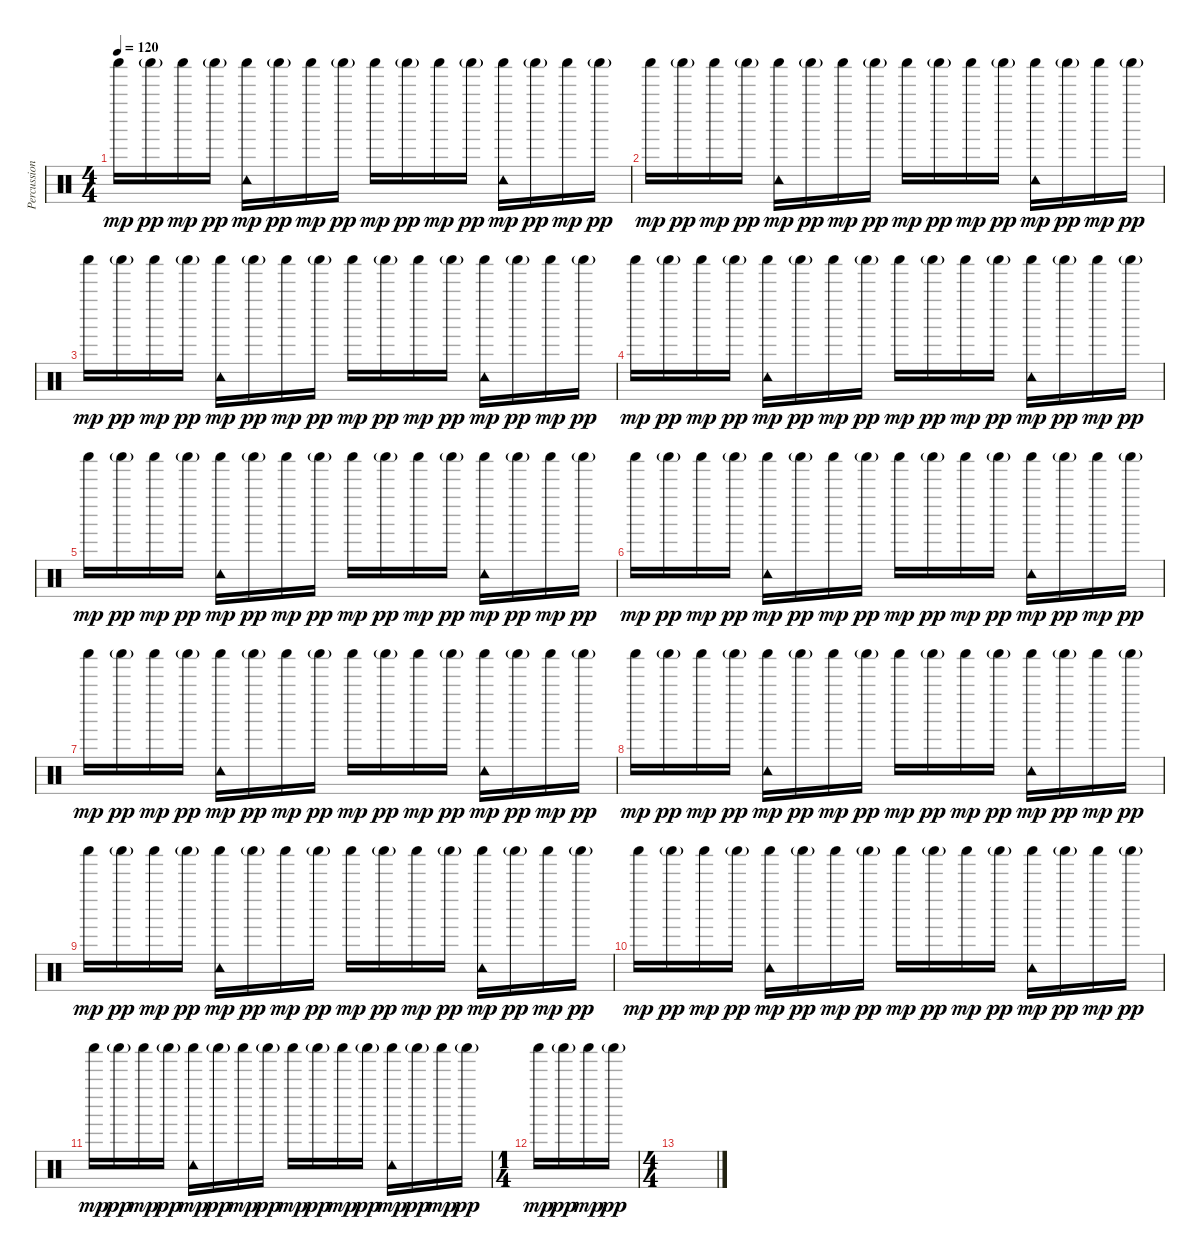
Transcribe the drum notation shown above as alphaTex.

\track ("Percussion" "Percussion") {instrument percussion}
\staff {score}
\articulation defaults
\ts (4 4)
\tempo 120
\clef neutral
\ks c "Shaker (hit)".16{dy mp} "Shaker (hit)"{g}.16{dy pp} "Shaker (hit)".16{dy mp} "Shaker (hit)"{g}.16{dy pp}
("Shaker (hit)" "Tambourine (hit)").16{dy mp} "Shaker (hit)"{g}.16{dy pp} "Shaker (hit)".16{dy mp} "Shaker (hit)"{g}.16{dy pp} "Shaker (hit)".16{dy mp} "Shaker (hit)"{g}.16{dy pp} "Shaker (hit)".16{dy mp} "Shaker (hit)"{g}.16{dy pp} ("Shaker (hit)" "Tambourine (hit)").16{dy mp} "Shaker (hit)"{g}.16{dy pp} "Shaker (hit)".16{dy mp} "Shaker (hit)"{g}.16{dy pp} |
"Shaker (hit)".16{dy mp} "Shaker (hit)"{g}.16{dy pp} "Shaker (hit)".16{dy mp} "Shaker (hit)"{g}.16{dy pp} ("Shaker (hit)" "Tambourine (hit)").16{dy mp} "Shaker (hit)"{g}.16{dy pp} "Shaker (hit)".16{dy mp} "Shaker (hit)"{g}.16{dy pp} "Shaker (hit)".16{dy mp} "Shaker (hit)"{g}.16{dy pp} "Shaker (hit)".16{dy mp} "Shaker (hit)"{g}.16{dy pp} ("Shaker (hit)" "Tambourine (hit)").16{dy mp} "Shaker (hit)"{g}.16{dy pp} "Shaker (hit)".16{dy mp} "Shaker (hit)"{g}.16{dy pp} |
"Shaker (hit)".16{dy mp} "Shaker (hit)"{g}.16{dy pp} "Shaker (hit)".16{dy mp} "Shaker (hit)"{g}.16{dy pp} ("Shaker (hit)" "Tambourine (hit)").16{dy mp} "Shaker (hit)"{g}.16{dy pp} "Shaker (hit)".16{dy mp} "Shaker (hit)"{g}.16{dy pp} "Shaker (hit)".16{dy mp} "Shaker (hit)"{g}.16{dy pp} "Shaker (hit)".16{dy mp} "Shaker (hit)"{g}.16{dy pp} ("Shaker (hit)" "Tambourine (hit)").16{dy mp} "Shaker (hit)"{g}.16{dy pp} "Shaker (hit)".16{dy mp} "Shaker (hit)"{g}.16{dy pp} |
"Shaker (hit)".16{dy mp} "Shaker (hit)"{g}.16{dy pp} "Shaker (hit)".16{dy mp} "Shaker (hit)"{g}.16{dy pp} ("Shaker (hit)" "Tambourine (hit)").16{dy mp} "Shaker (hit)"{g}.16{dy pp} "Shaker (hit)".16{dy mp} "Shaker (hit)"{g}.16{dy pp} "Shaker (hit)".16{dy mp} "Shaker (hit)"{g}.16{dy pp} "Shaker (hit)".16{dy mp} "Shaker (hit)"{g}.16{dy pp} ("Shaker (hit)" "Tambourine (hit)").16{dy mp} "Shaker (hit)"{g}.16{dy pp} "Shaker (hit)".16{dy mp} "Shaker (hit)"{g}.16{dy pp} |
"Shaker (hit)".16{dy mp} "Shaker (hit)"{g}.16{dy pp} "Shaker (hit)".16{dy mp} "Shaker (hit)"{g}.16{dy pp} ("Shaker (hit)" "Tambourine (hit)").16{dy mp} "Shaker (hit)"{g}.16{dy pp} "Shaker (hit)".16{dy mp} "Shaker (hit)"{g}.16{dy pp} "Shaker (hit)".16{dy mp} "Shaker (hit)"{g}.16{dy pp} "Shaker (hit)".16{dy mp} "Shaker (hit)"{g}.16{dy pp} ("Shaker (hit)" "Tambourine (hit)").16{dy mp} "Shaker (hit)"{g}.16{dy pp} "Shaker (hit)".16{dy mp} "Shaker (hit)"{g}.16{dy pp} |
"Shaker (hit)".16{dy mp} "Shaker (hit)"{g}.16{dy pp} "Shaker (hit)".16{dy mp} "Shaker (hit)"{g}.16{dy pp} ("Shaker (hit)" "Tambourine (hit)").16{dy mp} "Shaker (hit)"{g}.16{dy pp} "Shaker (hit)".16{dy mp} "Shaker (hit)"{g}.16{dy pp} "Shaker (hit)".16{dy mp} "Shaker (hit)"{g}.16{dy pp} "Shaker (hit)".16{dy mp} "Shaker (hit)"{g}.16{dy pp} ("Shaker (hit)" "Tambourine (hit)").16{dy mp} "Shaker (hit)"{g}.16{dy pp} "Shaker (hit)".16{dy mp} "Shaker (hit)"{g}.16{dy pp} |
"Shaker (hit)".16{dy mp} "Shaker (hit)"{g}.16{dy pp} "Shaker (hit)".16{dy mp} "Shaker (hit)"{g}.16{dy pp} ("Shaker (hit)" "Tambourine (hit)").16{dy mp} "Shaker (hit)"{g}.16{dy pp} "Shaker (hit)".16{dy mp} "Shaker (hit)"{g}.16{dy pp} "Shaker (hit)".16{dy mp} "Shaker (hit)"{g}.16{dy pp} "Shaker (hit)".16{dy mp} "Shaker (hit)"{g}.16{dy pp} ("Shaker (hit)" "Tambourine (hit)").16{dy mp} "Shaker (hit)"{g}.16{dy pp} "Shaker (hit)".16{dy mp} "Shaker (hit)"{g}.16{dy pp} |
"Shaker (hit)".16{dy mp} "Shaker (hit)"{g}.16{dy pp} "Shaker (hit)".16{dy mp} "Shaker (hit)"{g}.16{dy pp} ("Shaker (hit)" "Tambourine (hit)").16{dy mp} "Shaker (hit)"{g}.16{dy pp} "Shaker (hit)".16{dy mp} "Shaker (hit)"{g}.16{dy pp} "Shaker (hit)".16{dy mp} "Shaker (hit)"{g}.16{dy pp} "Shaker (hit)".16{dy mp} "Shaker (hit)"{g}.16{dy pp} ("Shaker (hit)" "Tambourine (hit)").16{dy mp} "Shaker (hit)"{g}.16{dy pp} "Shaker (hit)".16{dy mp} "Shaker (hit)"{g}.16{dy pp} |
"Shaker (hit)".16{dy mp} "Shaker (hit)"{g}.16{dy pp} "Shaker (hit)".16{dy mp} "Shaker (hit)"{g}.16{dy pp} ("Shaker (hit)" "Tambourine (hit)").16{dy mp} "Shaker (hit)"{g}.16{dy pp} "Shaker (hit)".16{dy mp} "Shaker (hit)"{g}.16{dy pp} "Shaker (hit)".16{dy mp} "Shaker (hit)"{g}.16{dy pp} "Shaker (hit)".16{dy mp} "Shaker (hit)"{g}.16{dy pp} ("Shaker (hit)" "Tambourine (hit)").16{dy mp} "Shaker (hit)"{g}.16{dy pp} "Shaker (hit)".16{dy mp} "Shaker (hit)"{g}.16{dy pp} |
"Shaker (hit)".16{dy mp} "Shaker (hit)"{g}.16{dy pp} "Shaker (hit)".16{dy mp} "Shaker (hit)"{g}.16{dy pp} ("Shaker (hit)" "Tambourine (hit)").16{dy mp} "Shaker (hit)"{g}.16{dy pp} "Shaker (hit)".16{dy mp} "Shaker (hit)"{g}.16{dy pp} "Shaker (hit)".16{dy mp} "Shaker (hit)"{g}.16{dy pp} "Shaker (hit)".16{dy mp} "Shaker (hit)"{g}.16{dy pp} ("Shaker (hit)" "Tambourine (hit)").16{dy mp} "Shaker (hit)"{g}.16{dy pp} "Shaker (hit)".16{dy mp} "Shaker (hit)"{g}.16{dy pp} |
"Shaker (hit)".16{dy mp} "Shaker (hit)"{g}.16{dy pp} "Shaker (hit)".16{dy mp} "Shaker (hit)"{g}.16{dy pp} ("Shaker (hit)" "Tambourine (hit)").16{dy mp} "Shaker (hit)"{g}.16{dy pp} "Shaker (hit)".16{dy mp} "Shaker (hit)"{g}.16{dy pp} "Shaker (hit)".16{dy mp} "Shaker (hit)"{g}.16{dy pp} "Shaker (hit)".16{dy mp} "Shaker (hit)"{g}.16{dy pp} ("Shaker (hit)" "Tambourine (hit)").16{dy mp} "Shaker (hit)"{g}.16{dy pp} "Shaker (hit)".16{dy mp} "Shaker (hit)"{g}.16{dy pp} |
\ts (1 4)
"Shaker (hit)".16{dy mp} "Shaker (hit)"{g}.16{dy pp} "Shaker (hit)".16{dy mp} "Shaker (hit)"{g}.16{dy pp} |
\ts (4 4)
